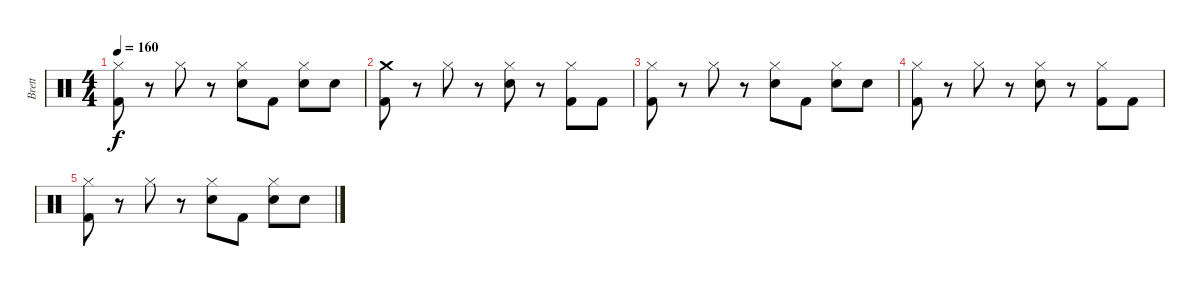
\track ("Brett" "Brett") {instrument percussion}
\staff {score}
\articulation defaults
\ts (4 4)
\tempo 160
\clef neutral
\ks c
("Hi-Hat (closed)" "Kick (hit) 2").8{dy f} r.8 "Hi-Hat (closed)".8 r.8 ("Hi-Hat (closed)" "Snare (hit) 2").8 "Kick (hit) 2".8 ("Hi-Hat (closed)" "Snare (hit) 2").8 "Snare (hit) 2".8 |
("Crash medium (hit)" "Kick (hit) 2").8{volume 0} r.8 "Hi-Hat (closed)".8 r.8 ("Hi-Hat (closed)" "Snare (hit) 2").8 r.8 ("Hi-Hat (closed)" "Kick (hit) 2").8 "Kick (hit) 2".8 |
("Hi-Hat (closed)" "Kick (hit) 2").8 r.8 "Hi-Hat (closed)".8 r.8 ("Hi-Hat (closed)" "Snare (hit) 2").8 "Kick (hit) 2".8 ("Hi-Hat (closed)" "Snare (hit) 2").8 "Snare (hit) 2".8 |
("Hi-Hat (closed)" "Kick (hit) 2").8 r.8 "Hi-Hat (closed)".8 r.8 ("Hi-Hat (closed)" "Snare (hit) 2").8 r.8 ("Hi-Hat (closed)" "Kick (hit) 2").8 "Kick (hit) 2".8 |
("Hi-Hat (closed)" "Kick (hit) 2").8 r.8 "Hi-Hat (closed)".8 r.8 ("Hi-Hat (closed)" "Snare (hit) 2").8 "Kick (hit) 2".8 ("Hi-Hat (closed)" "Snare (hit) 2").8 "Snare (hit) 2".8
